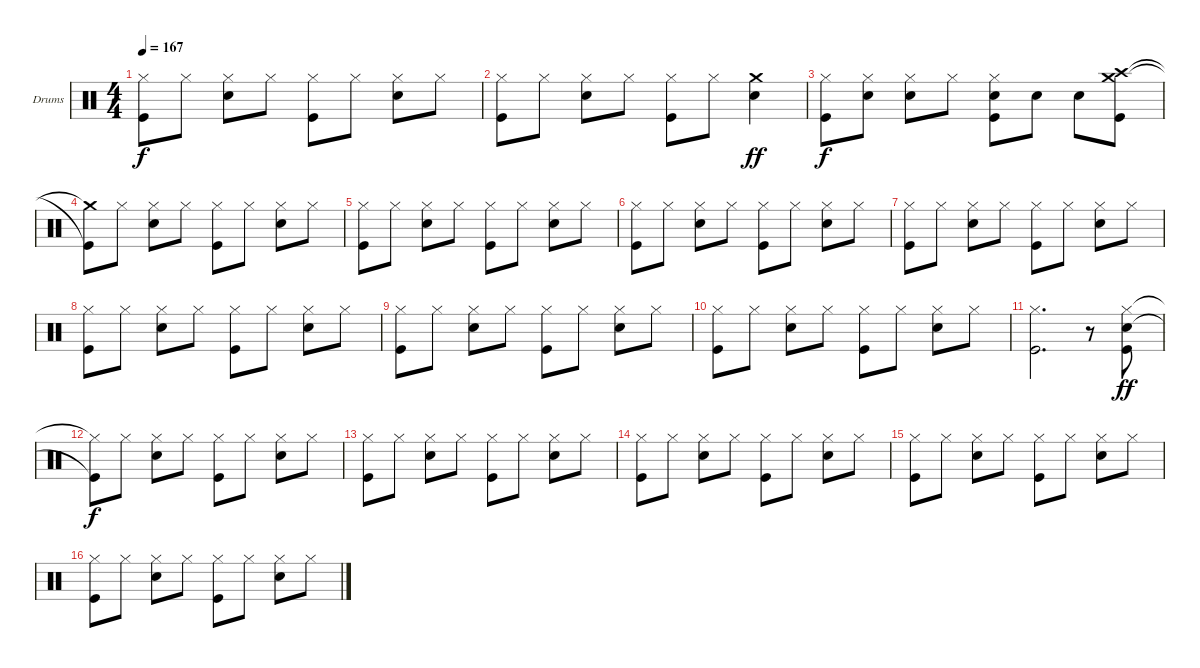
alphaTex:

\bracketExtendMode groupsimilarinstruments
\firstSystemTrackNameOrientation horizontal
\otherSystemsTrackNameOrientation horizontal
\track ("Drumkit" "Drums") {instrument percussion}
\staff {score}
\articulation defaults
\ts (4 4)
\tempo 167
\clef neutral
\ks c
("Hi-Hat (closed)" "Kick (hit)").8{dy f} "Hi-Hat (closed)".8 ("Hi-Hat (closed)" "Snare (hit) 2").8 "Hi-Hat (closed)".8 ("Hi-Hat (closed)" "Kick (hit)").8 "Hi-Hat (closed)".8 ("Hi-Hat (closed)" "Snare (hit) 2").8 "Hi-Hat (closed)".8 |
("Hi-Hat (closed)" "Kick (hit)").8 "Hi-Hat (closed)".8 ("Hi-Hat (closed)" "Snare (hit) 2").8 "Hi-Hat (closed)".8 ("Hi-Hat (closed)" "Kick (hit)").8 "Hi-Hat (closed)".8 ("Crash medium (hit)" "Snare (hit) 2").4{dy ff} |
("Hi-Hat (closed)" "Kick (hit)").8{dy f} ("Hi-Hat (closed)" "Snare (hit) 2").8 ("Hi-Hat (closed)" "Snare (hit) 2").8 "Hi-Hat (closed)".8 ("Hi-Hat (closed)" "Snare (hit) 2" "Kick (hit)").8 "Snare (hit) 2".8 "Snare (hit) 2".8 ("Crash medium (hit)" "Crash high (hit)" "Kick (hit)").8 |
("Crash medium (hit)"{t} "Kick (hit)"{t}).8 "Hi-Hat (closed)".8 ("Hi-Hat (closed)" "Snare (hit) 2").8 "Hi-Hat (closed)".8 ("Hi-Hat (closed)" "Kick (hit)").8 "Hi-Hat (closed)".8 ("Hi-Hat (closed)" "Snare (hit) 2").8 "Hi-Hat (closed)".8 |
("Hi-Hat (closed)" "Kick (hit)").8 "Hi-Hat (closed)".8 ("Hi-Hat (closed)" "Snare (hit) 2").8 "Hi-Hat (closed)".8 ("Hi-Hat (closed)" "Kick (hit)").8 "Hi-Hat (closed)".8 ("Hi-Hat (closed)" "Snare (hit) 2").8 "Hi-Hat (closed)".8 |
("Hi-Hat (closed)" "Kick (hit)").8 "Hi-Hat (closed)".8 ("Hi-Hat (closed)" "Snare (hit) 2").8 "Hi-Hat (closed)".8 ("Hi-Hat (closed)" "Kick (hit)").8 "Hi-Hat (closed)".8 ("Hi-Hat (closed)" "Snare (hit) 2").8 "Hi-Hat (closed)".8 |
("Hi-Hat (closed)" "Kick (hit)").8 "Hi-Hat (closed)".8 ("Hi-Hat (closed)" "Snare (hit) 2").8 "Hi-Hat (closed)".8 ("Hi-Hat (closed)" "Kick (hit)").8 "Hi-Hat (closed)".8 ("Hi-Hat (closed)" "Snare (hit) 2").8 "Hi-Hat (closed)".8 |
("Hi-Hat (closed)" "Kick (hit)").8 "Hi-Hat (closed)".8 ("Hi-Hat (closed)" "Snare (hit) 2").8 "Hi-Hat (closed)".8 ("Hi-Hat (closed)" "Kick (hit)").8 "Hi-Hat (closed)".8 ("Hi-Hat (closed)" "Snare (hit) 2").8 "Hi-Hat (closed)".8 |
("Hi-Hat (closed)" "Kick (hit)").8 "Hi-Hat (closed)".8 ("Hi-Hat (closed)" "Snare (hit) 2").8 "Hi-Hat (closed)".8 ("Hi-Hat (closed)" "Kick (hit)").8 "Hi-Hat (closed)".8 ("Hi-Hat (closed)" "Snare (hit) 2").8 "Hi-Hat (closed)".8 |
("Hi-Hat (closed)" "Kick (hit)").8 "Hi-Hat (closed)".8 ("Hi-Hat (closed)" "Snare (hit) 2").8 "Hi-Hat (closed)".8 ("Hi-Hat (closed)" "Kick (hit)").8 "Hi-Hat (closed)".8 ("Hi-Hat (closed)" "Snare (hit) 2").8 "Hi-Hat (closed)".8 |
("Hi-Hat (closed)" "Kick (hit)").2{d} r.8 ("Hi-Hat (closed)" "Snare (hit) 2" "Kick (hit)").8{dy ff} |
("Hi-Hat (closed)"{t} "Kick (hit)"{t}).8{dy f} "Hi-Hat (closed)".8 ("Hi-Hat (closed)" "Snare (hit) 2").8 "Hi-Hat (closed)".8 ("Hi-Hat (closed)" "Kick (hit)").8 "Hi-Hat (closed)".8 ("Hi-Hat (closed)" "Snare (hit) 2").8 "Hi-Hat (closed)".8 |
("Hi-Hat (closed)" "Kick (hit)").8 "Hi-Hat (closed)".8 ("Hi-Hat (closed)" "Snare (hit) 2").8 "Hi-Hat (closed)".8 ("Hi-Hat (closed)" "Kick (hit)").8 "Hi-Hat (closed)".8 ("Hi-Hat (closed)" "Snare (hit) 2").8 "Hi-Hat (closed)".8 |
("Hi-Hat (closed)" "Kick (hit)").8 "Hi-Hat (closed)".8 ("Hi-Hat (closed)" "Snare (hit) 2").8 "Hi-Hat (closed)".8 ("Hi-Hat (closed)" "Kick (hit)").8 "Hi-Hat (closed)".8 ("Hi-Hat (closed)" "Snare (hit) 2").8 "Hi-Hat (closed)".8 |
("Hi-Hat (closed)" "Kick (hit)").8 "Hi-Hat (closed)".8 ("Hi-Hat (closed)" "Snare (hit) 2").8 "Hi-Hat (closed)".8 ("Hi-Hat (closed)" "Kick (hit)").8 "Hi-Hat (closed)".8 ("Hi-Hat (closed)" "Snare (hit) 2").8 "Hi-Hat (closed)".8 |
("Hi-Hat (closed)" "Kick (hit)").8 "Hi-Hat (closed)".8 ("Hi-Hat (closed)" "Snare (hit) 2").8 "Hi-Hat (closed)".8 ("Hi-Hat (closed)" "Kick (hit)").8 "Hi-Hat (closed)".8 ("Hi-Hat (closed)" "Snare (hit) 2").8 "Hi-Hat (closed)".8
